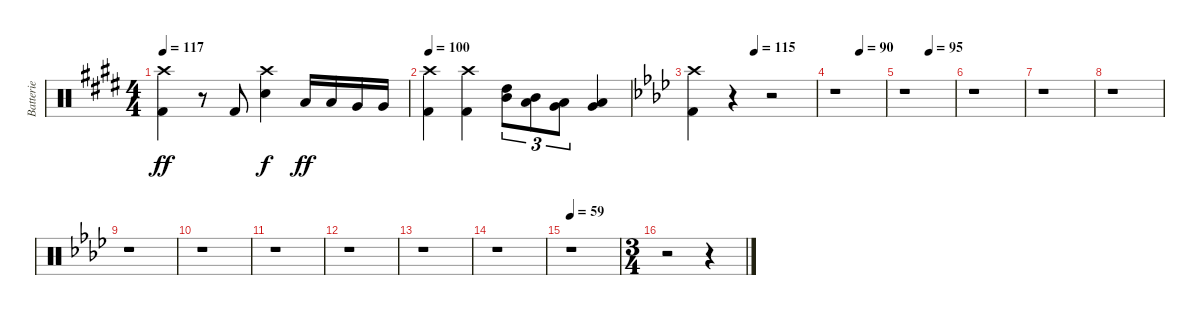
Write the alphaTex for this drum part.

\track ("Batterie" "Batterie") {instrument percussion}
\staff {score}
\articulation defaults
\ts (4 4)
\tempo 117
\clef neutral
\ks e
("Crash high (hit)" "Kick (hit) 2").4{dy ff} r.8 "Kick (hit) 2".8 ("Crash high (hit)" "Snare (hit) 2").4{dy f} "Low Tom (hit)".16{dy ff} "Low Tom (hit)".16 "Very Low Tom (hit)".16 "Very Low Tom (hit)".16 |
\tempo 100
("Crash high (hit)" "Kick (hit) 2").4 ("Crash high (hit)" "Kick (hit) 2").4 ("High Tom (hit)" "Mid Tom (hit)").8{tu (3 2)} ("Mid Tom (hit)" "Low Tom (hit)").8{tu (3 2)} ("Low Tom (hit)" "Very Low Tom (hit)").8{tu (3 2)} ("Low Tom (hit)" "Very Low Tom (hit)").4 |
\tempo (115 0.5)
\ks ab
("Crash high (hit)" "Kick (hit) 2").4 r.4 r.2 |
\tempo (90 0.5)
r.1 |
\tempo (95 0.5)
r.1 |
r.1 |
r.1 |
r.1 |
r.1 |
r.1 |
r.1 |
r.1 |
r.1 |
r.1 |
\tempo 59
r.1 |
\ts (3 4)
r.2 r.4
